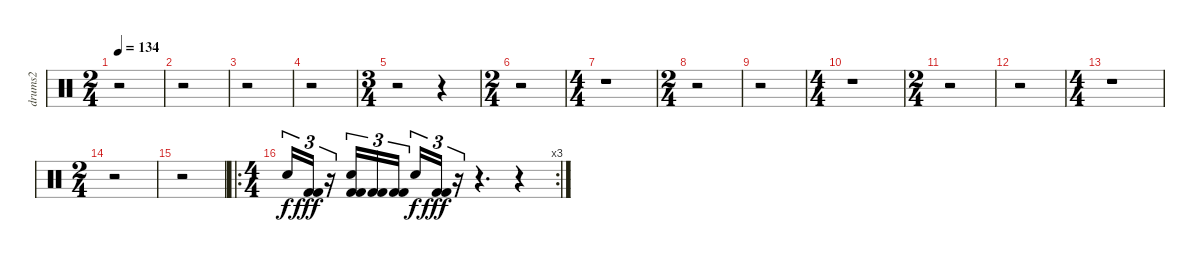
\track ("drums2" "drums2") {instrument percussion}
\staff {score}
\articulation defaults
\ts (2 4)
\tempo 134
\clef neutral
\ks c
r.2{dy f} |
r.2 |
r.2 |
r.2 |
\ts (3 4)
r.2 r.4 |
\ts (2 4)
r.2 |
\ts (4 4)
r.1 |
\ts (2 4)
r.2 |
r.2 |
\ts (4 4)
r.1 |
\ts (2 4)
r.2 |
r.2 |
\ts (4 4)
r.1 |
\ts (2 4)
r.2 |
r.2 |
\ro
\rc 3
\ts (4 4)
"Snare (hit) 2".16{tu (3 2)} ("Kick (hit) 2" "Kick (hit) 2").16{tu (3 2) dy fff} r.16{tu (3 2)} ("Snare (hit) 2" "Kick (hit) 2" "Kick (hit) 2").16{tu (3 2)} ("Kick (hit) 2" "Kick (hit) 2").16{tu (3 2)} ("Kick (hit) 2" "Kick (hit) 2").16{tu (3 2)} "Snare (hit) 2".16{tu (3 2) dy f} ("Kick (hit) 2" "Kick (hit) 2").16{tu (3 2) dy fff} r.16{tu (3 2)} r.4{d} r.4
